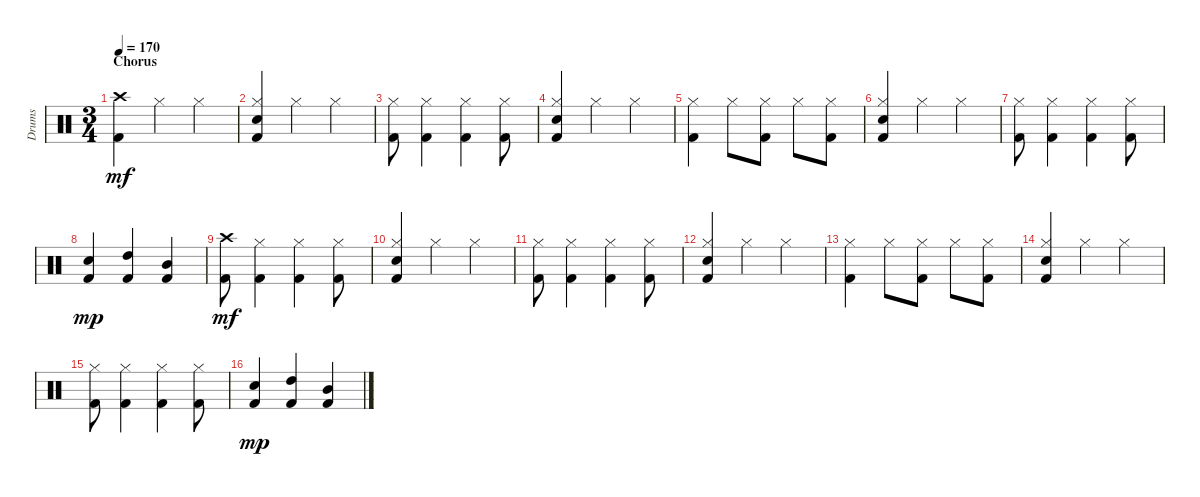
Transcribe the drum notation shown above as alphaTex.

\track ("Drums" "Drums") {instrument percussion}
\staff {score}
\articulation defaults
\ts (3 4)
\section ("" "Chorus")
\tempo 170
\clef neutral
\ks c
("Crash high (hit)" "Kick (hit) 2").4{dy mf} "Hi-Hat (closed)".4 "Hi-Hat (closed)".4 |
("Hi-Hat (closed)" "Snare (hit) 2" "Kick (hit) 2").4 "Hi-Hat (closed)".4 "Hi-Hat (closed)".4 |
("Hi-Hat (closed)" "Kick (hit) 2").8 ("Hi-Hat (closed)" "Kick (hit) 2").4 ("Hi-Hat (closed)" "Kick (hit) 2").4 ("Hi-Hat (closed)" "Kick (hit) 2").8 |
("Hi-Hat (closed)" "Snare (hit) 2" "Kick (hit) 2").4 "Hi-Hat (closed)".4 "Hi-Hat (closed)".4 |
("Hi-Hat (closed)" "Kick (hit) 2").4 "Hi-Hat (closed)".8 ("Hi-Hat (closed)" "Kick (hit) 2").8 "Hi-Hat (closed)".8 ("Hi-Hat (closed)" "Kick (hit) 2").8 |
("Hi-Hat (closed)" "Snare (hit) 2" "Kick (hit) 2").4 "Hi-Hat (closed)".4 "Hi-Hat (closed)".4 |
("Hi-Hat (closed)" "Kick (hit) 2").8 ("Hi-Hat (closed)" "Kick (hit) 2").4 ("Hi-Hat (closed)" "Kick (hit) 2").4 ("Hi-Hat (closed)" "Kick (hit) 2").8 |
("Snare (hit) 2" "Kick (hit) 2").4{dy mp} ("High Tom (hit)" "Kick (hit) 2").4 ("Mid Tom (hit)" "Kick (hit) 2").4 |
("Crash high (hit)" "Kick (hit) 2").8{dy mf} ("Hi-Hat (closed)" "Kick (hit) 2").4 ("Hi-Hat (closed)" "Kick (hit) 2").4 ("Hi-Hat (closed)" "Kick (hit) 2").8 |
("Hi-Hat (closed)" "Snare (hit) 2" "Kick (hit) 2").4 "Hi-Hat (closed)".4 "Hi-Hat (closed)".4 |
("Hi-Hat (closed)" "Kick (hit) 2").8 ("Hi-Hat (closed)" "Kick (hit) 2").4 ("Hi-Hat (closed)" "Kick (hit) 2").4 ("Hi-Hat (closed)" "Kick (hit) 2").8 |
("Hi-Hat (closed)" "Snare (hit) 2" "Kick (hit) 2").4 "Hi-Hat (closed)".4 "Hi-Hat (closed)".4 |
("Hi-Hat (closed)" "Kick (hit) 2").4 "Hi-Hat (closed)".8 ("Hi-Hat (closed)" "Kick (hit) 2").8 "Hi-Hat (closed)".8 ("Hi-Hat (closed)" "Kick (hit) 2").8 |
("Hi-Hat (closed)" "Snare (hit) 2" "Kick (hit) 2").4 "Hi-Hat (closed)".4 "Hi-Hat (closed)".4 |
("Hi-Hat (closed)" "Kick (hit) 2").8 ("Hi-Hat (closed)" "Kick (hit) 2").4 ("Hi-Hat (closed)" "Kick (hit) 2").4 ("Hi-Hat (closed)" "Kick (hit) 2").8 |
("Snare (hit) 2" "Kick (hit) 2").4{dy mp} ("High Tom (hit)" "Kick (hit) 2").4 ("Mid Tom (hit)" "Kick (hit) 2").4
